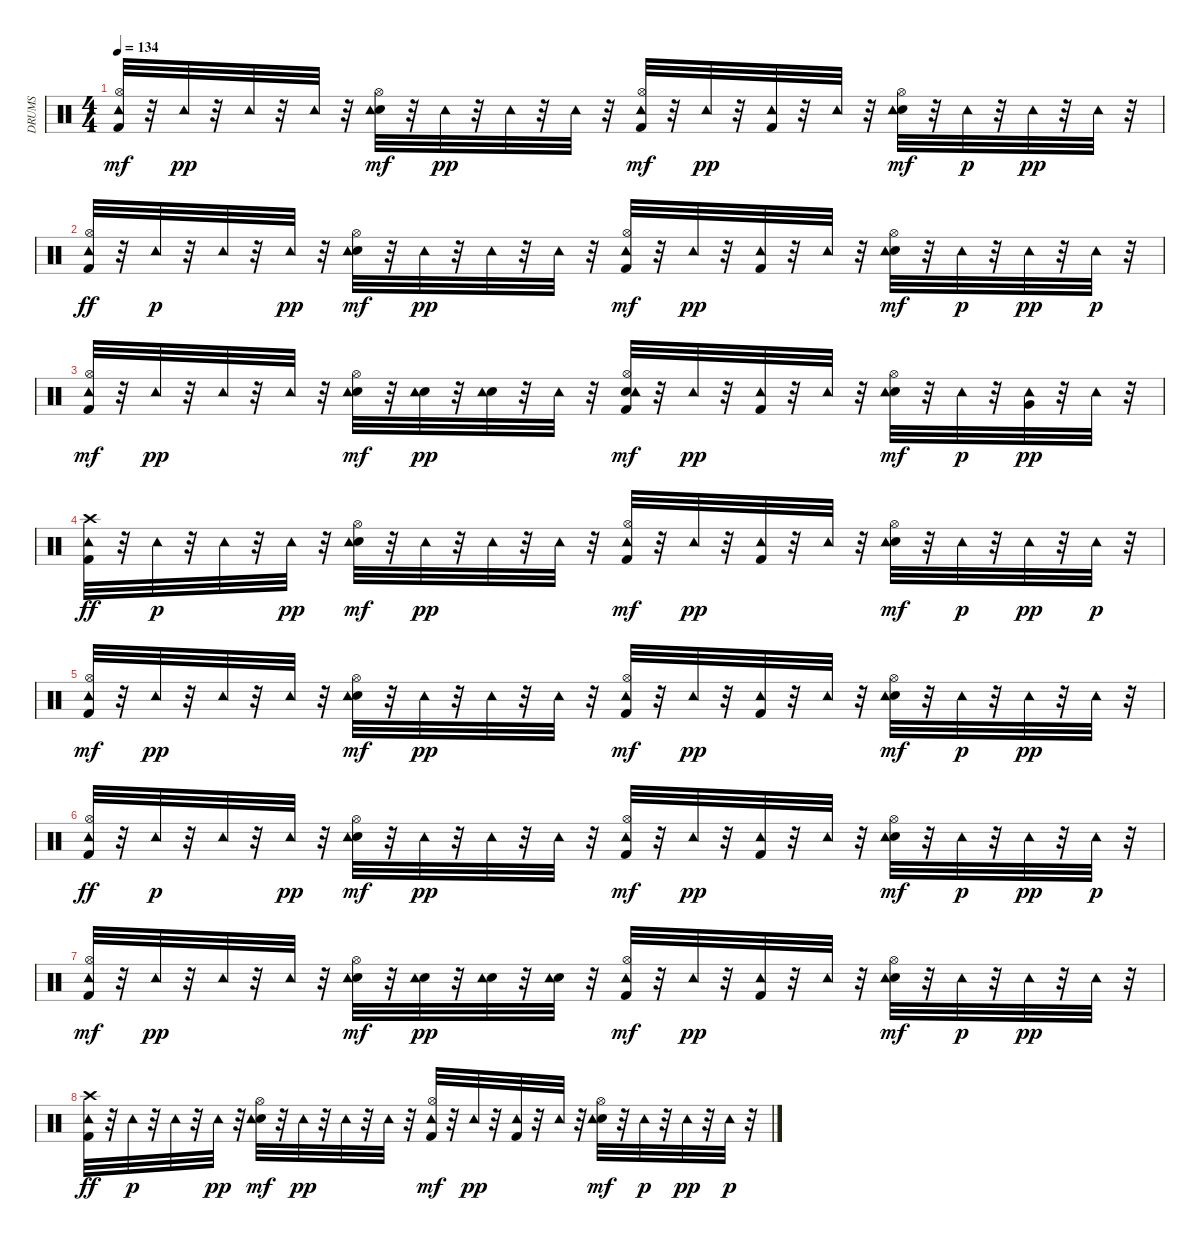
\track ("DRUMS" "DRUMS") {instrument percussion}
\staff {score}
\articulation defaults
\ts (4 4)
\tempo 134
\clef neutral
\ks c
("Kick (hit) 2" "Hi-Hat (open)" "Tambourine (hit)").32{dy mf} r.32 "Tambourine (hit)".32{dy pp} r.32 "Tambourine (hit)".32 r.32 "Tambourine (hit)".32 r.32 ("Snare (hit) 2" "Hi-Hat (open)" "Tambourine (hit)").32{dy mf} r.32 "Tambourine (hit)".32{dy pp} r.32 "Tambourine (hit)".32 r.32 "Tambourine (hit)".32 r.32 ("Kick (hit) 2" "Hi-Hat (open)" "Tambourine (hit)").32{dy mf} r.32 "Tambourine (hit)".32{dy pp} r.32 ("Kick (hit) 2" "Tambourine (hit)").32 r.32 "Tambourine (hit)".32 r.32 ("Snare (hit) 2" "Hi-Hat (open)" "Tambourine (hit)").32{dy mf} r.32 "Tambourine (hit)".32{dy p} r.32 "Tambourine (hit)".32{dy pp} r.32 "Tambourine (hit)".32 r.32 |
("Kick (hit) 2" "Hi-Hat (open)" "Tambourine (hit)").32{dy ff} r.32 "Tambourine (hit)".32{dy p} r.32 "Tambourine (hit)".32 r.32 "Tambourine (hit)".32{dy pp} r.32 ("Snare (hit) 2" "Hi-Hat (open)" "Tambourine (hit)").32{dy mf} r.32 "Tambourine (hit)".32{dy pp} r.32 "Tambourine (hit)".32 r.32 "Tambourine (hit)".32 r.32 ("Kick (hit) 2" "Hi-Hat (open)" "Tambourine (hit)").32{dy mf} r.32 "Tambourine (hit)".32{dy pp} r.32 ("Kick (hit) 2" "Tambourine (hit)").32 r.32 "Tambourine (hit)".32 r.32 ("Snare (hit) 2" "Hi-Hat (open)" "Tambourine (hit)").32{dy mf} r.32 "Tambourine (hit)".32{dy p} r.32 "Tambourine (hit)".32{dy pp} r.32 "Tambourine (hit)".32{dy p} r.32 |
("Kick (hit) 2" "Hi-Hat (open)" "Tambourine (hit)").32{dy mf} r.32 "Tambourine (hit)".32{dy pp} r.32 "Tambourine (hit)".32 r.32 "Tambourine (hit)".32 r.32 ("Snare (hit) 2" "Hi-Hat (open)" "Tambourine (hit)").32{dy mf} r.32 ("Snare (hit) 2" "Tambourine (hit)").32{dy pp} r.32 ("Snare (hit) 2" "Tambourine (hit)").32 r.32 "Tambourine (hit)".32 r.32 ("Kick (hit) 2" "Snare (hit) 2" "Hi-Hat (open)" "Tambourine (hit)").32{dy mf} r.32 "Tambourine (hit)".32{dy pp} r.32 ("Kick (hit) 2" "Tambourine (hit)").32 r.32 "Tambourine (hit)".32 r.32 ("Snare (hit) 2" "Hi-Hat (open)" "Tambourine (hit)").32{dy mf} r.32 "Tambourine (hit)".32{dy p} r.32 ("Very Low Tom (hit)" "Tambourine (hit)").32{dy pp} r.32 "Tambourine (hit)".32 r.32 |
("Kick (hit) 2" "Crash high (hit)" "Tambourine (hit)").32{dy ff} r.32 "Tambourine (hit)".32{dy p} r.32 "Tambourine (hit)".32 r.32 "Tambourine (hit)".32{dy pp} r.32 ("Snare (hit) 2" "Hi-Hat (open)" "Tambourine (hit)").32{dy mf} r.32 "Tambourine (hit)".32{dy pp} r.32 "Tambourine (hit)".32 r.32 "Tambourine (hit)".32 r.32 ("Kick (hit) 2" "Hi-Hat (open)" "Tambourine (hit)").32{dy mf} r.32 "Tambourine (hit)".32{dy pp} r.32 ("Kick (hit) 2" "Tambourine (hit)").32 r.32 "Tambourine (hit)".32 r.32 ("Snare (hit) 2" "Hi-Hat (open)" "Tambourine (hit)").32{dy mf} r.32 "Tambourine (hit)".32{dy p} r.32 "Tambourine (hit)".32{dy pp} r.32 "Tambourine (hit)".32{dy p} r.32 |
("Kick (hit) 2" "Hi-Hat (open)" "Tambourine (hit)").32{dy mf} r.32 "Tambourine (hit)".32{dy pp} r.32 "Tambourine (hit)".32 r.32 "Tambourine (hit)".32 r.32 ("Snare (hit) 2" "Hi-Hat (open)" "Tambourine (hit)").32{dy mf} r.32 "Tambourine (hit)".32{dy pp} r.32 "Tambourine (hit)".32 r.32 "Tambourine (hit)".32 r.32 ("Kick (hit) 2" "Hi-Hat (open)" "Tambourine (hit)").32{dy mf} r.32 "Tambourine (hit)".32{dy pp} r.32 ("Kick (hit) 2" "Tambourine (hit)").32 r.32 "Tambourine (hit)".32 r.32 ("Snare (hit) 2" "Hi-Hat (open)" "Tambourine (hit)").32{dy mf} r.32 "Tambourine (hit)".32{dy p} r.32 "Tambourine (hit)".32{dy pp} r.32 "Tambourine (hit)".32 r.32 |
("Kick (hit) 2" "Hi-Hat (open)" "Tambourine (hit)").32{dy ff} r.32 "Tambourine (hit)".32{dy p} r.32 "Tambourine (hit)".32 r.32 "Tambourine (hit)".32{dy pp} r.32 ("Snare (hit) 2" "Hi-Hat (open)" "Tambourine (hit)").32{dy mf} r.32 "Tambourine (hit)".32{dy pp} r.32 "Tambourine (hit)".32 r.32 "Tambourine (hit)".32 r.32 ("Kick (hit) 2" "Hi-Hat (open)" "Tambourine (hit)").32{dy mf} r.32 "Tambourine (hit)".32{dy pp} r.32 ("Kick (hit) 2" "Tambourine (hit)").32 r.32 "Tambourine (hit)".32 r.32 ("Snare (hit) 2" "Hi-Hat (open)" "Tambourine (hit)").32{dy mf} r.32 "Tambourine (hit)".32{dy p} r.32 "Tambourine (hit)".32{dy pp} r.32 "Tambourine (hit)".32{dy p} r.32 |
("Kick (hit) 2" "Hi-Hat (open)" "Tambourine (hit)").32{dy mf} r.32 "Tambourine (hit)".32{dy pp} r.32 "Tambourine (hit)".32 r.32 "Tambourine (hit)".32 r.32 ("Snare (hit) 2" "Hi-Hat (open)" "Tambourine (hit)").32{dy mf} r.32 ("Snare (hit) 2" "Tambourine (hit)").32{dy pp} r.32 ("Snare (hit) 2" "Tambourine (hit)").32 r.32 ("Snare (hit) 2" "Tambourine (hit)").32 r.32 ("Kick (hit) 2" "Hi-Hat (open)" "Tambourine (hit)").32{dy mf} r.32 "Tambourine (hit)".32{dy pp} r.32 ("Kick (hit) 2" "Tambourine (hit)").32 r.32 "Tambourine (hit)".32 r.32 ("Snare (hit) 2" "Hi-Hat (open)" "Tambourine (hit)").32{dy mf} r.32 "Tambourine (hit)".32{dy p} r.32 "Tambourine (hit)".32{dy pp} r.32 "Tambourine (hit)".32 r.32 |
("Kick (hit) 2" "Crash high (hit)" "Tambourine (hit)").32{dy ff} r.32 "Tambourine (hit)".32{dy p} r.32 "Tambourine (hit)".32 r.32 "Tambourine (hit)".32{dy pp} r.32 ("Snare (hit) 2" "Hi-Hat (open)" "Tambourine (hit)").32{dy mf} r.32 "Tambourine (hit)".32{dy pp} r.32 "Tambourine (hit)".32 r.32 "Tambourine (hit)".32 r.32 ("Kick (hit) 2" "Hi-Hat (open)" "Tambourine (hit)").32{dy mf} r.32 "Tambourine (hit)".32{dy pp} r.32 ("Kick (hit) 2" "Tambourine (hit)").32 r.32 "Tambourine (hit)".32 r.32 ("Snare (hit) 2" "Hi-Hat (open)" "Tambourine (hit)").32{dy mf} r.32 "Tambourine (hit)".32{dy p} r.32 "Tambourine (hit)".32{dy pp} r.32 "Tambourine (hit)".32{dy p} r.32
